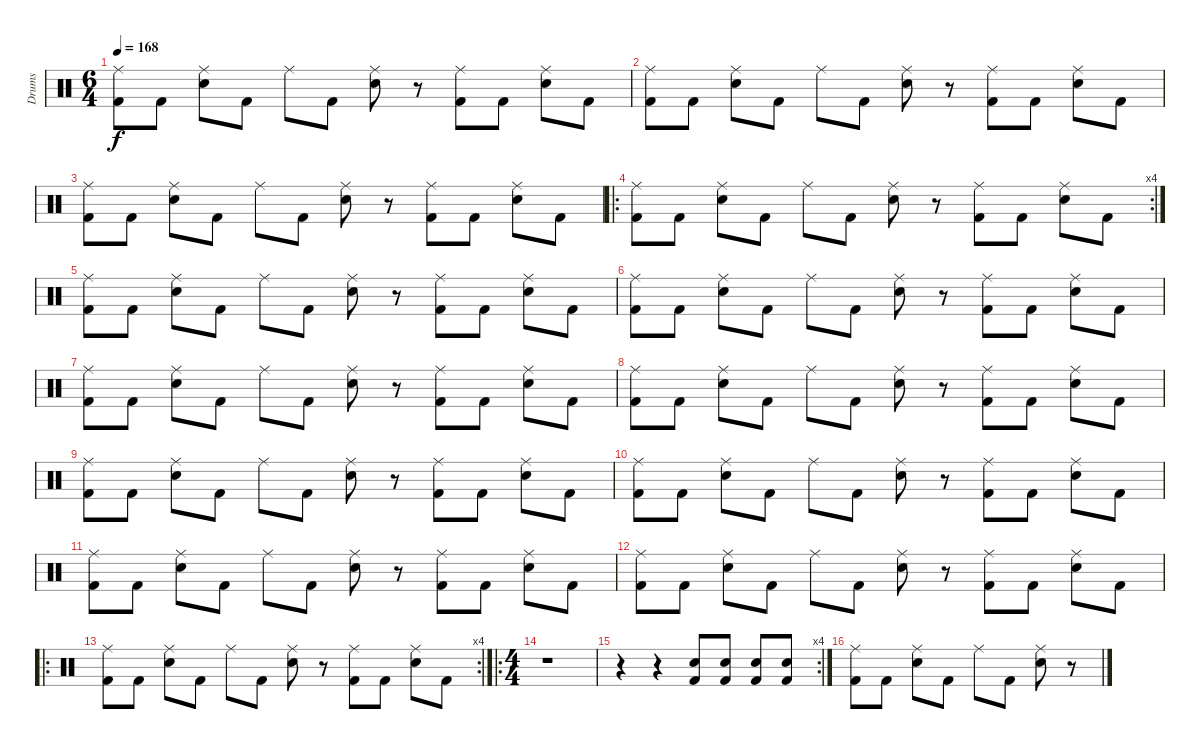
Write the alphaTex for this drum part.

\track ("Drums" "Drums") {instrument percussion}
\staff {score}
\articulation defaults
\ts (6 4)
\tempo 168
\clef neutral
\ks c
("Ride (middle)" "Kick (hit) 2").8{dy f} "Kick (hit) 2".8 ("Ride (middle)" "Snare (hit) 2").8 "Kick (hit) 2".8 "Ride (middle)".8 "Kick (hit) 2".8 ("Ride (middle)" "Snare (hit) 2").8 r.8 ("Ride (middle)" "Kick (hit) 2").8 "Kick (hit) 2".8 ("Ride (middle)" "Snare (hit) 2").8 "Kick (hit) 2".8 |
("Ride (middle)" "Kick (hit) 2").8 "Kick (hit) 2".8 ("Ride (middle)" "Snare (hit) 2").8 "Kick (hit) 2".8 "Ride (middle)".8 "Kick (hit) 2".8 ("Ride (middle)" "Snare (hit) 2").8 r.8 ("Ride (middle)" "Kick (hit) 2").8 "Kick (hit) 2".8 ("Ride (middle)" "Snare (hit) 2").8 "Kick (hit) 2".8 |
("Ride (middle)" "Kick (hit) 2").8 "Kick (hit) 2".8 ("Ride (middle)" "Snare (hit) 2").8 "Kick (hit) 2".8 "Ride (middle)".8 "Kick (hit) 2".8 ("Ride (middle)" "Snare (hit) 2").8 r.8 ("Ride (middle)" "Kick (hit) 2").8 "Kick (hit) 2".8 ("Ride (middle)" "Snare (hit) 2").8 "Kick (hit) 2".8 |
\ro
\rc 4
("Ride (middle)" "Kick (hit) 2").8 "Kick (hit) 2".8 ("Ride (middle)" "Snare (hit) 2").8 "Kick (hit) 2".8 "Ride (middle)".8 "Kick (hit) 2".8 ("Ride (middle)" "Snare (hit) 2").8 r.8 ("Ride (middle)" "Kick (hit) 2").8 "Kick (hit) 2".8 ("Ride (middle)" "Snare (hit) 2").8 "Kick (hit) 2".8 |
("Ride (middle)" "Kick (hit) 2").8 "Kick (hit) 2".8 ("Ride (middle)" "Snare (hit) 2").8 "Kick (hit) 2".8 "Ride (middle)".8 "Kick (hit) 2".8 ("Ride (middle)" "Snare (hit) 2").8 r.8 ("Ride (middle)" "Kick (hit) 2").8 "Kick (hit) 2".8 ("Ride (middle)" "Snare (hit) 2").8 "Kick (hit) 2".8 |
("Ride (middle)" "Kick (hit) 2").8 "Kick (hit) 2".8 ("Ride (middle)" "Snare (hit) 2").8 "Kick (hit) 2".8 "Ride (middle)".8 "Kick (hit) 2".8 ("Ride (middle)" "Snare (hit) 2").8 r.8 ("Ride (middle)" "Kick (hit) 2").8 "Kick (hit) 2".8 ("Ride (middle)" "Snare (hit) 2").8 "Kick (hit) 2".8 |
("Ride (middle)" "Kick (hit) 2").8 "Kick (hit) 2".8 ("Ride (middle)" "Snare (hit) 2").8 "Kick (hit) 2".8 "Ride (middle)".8 "Kick (hit) 2".8 ("Ride (middle)" "Snare (hit) 2").8 r.8 ("Ride (middle)" "Kick (hit) 2").8 "Kick (hit) 2".8 ("Ride (middle)" "Snare (hit) 2").8 "Kick (hit) 2".8 |
("Ride (middle)" "Kick (hit) 2").8 "Kick (hit) 2".8 ("Ride (middle)" "Snare (hit) 2").8 "Kick (hit) 2".8 "Ride (middle)".8 "Kick (hit) 2".8 ("Ride (middle)" "Snare (hit) 2").8 r.8 ("Ride (middle)" "Kick (hit) 2").8 "Kick (hit) 2".8 ("Ride (middle)" "Snare (hit) 2").8 "Kick (hit) 2".8 |
("Ride (middle)" "Kick (hit) 2").8 "Kick (hit) 2".8 ("Ride (middle)" "Snare (hit) 2").8 "Kick (hit) 2".8 "Ride (middle)".8 "Kick (hit) 2".8 ("Ride (middle)" "Snare (hit) 2").8 r.8 ("Ride (middle)" "Kick (hit) 2").8 "Kick (hit) 2".8 ("Ride (middle)" "Snare (hit) 2").8 "Kick (hit) 2".8 |
("Ride (middle)" "Kick (hit) 2").8 "Kick (hit) 2".8 ("Ride (middle)" "Snare (hit) 2").8 "Kick (hit) 2".8 "Ride (middle)".8 "Kick (hit) 2".8 ("Ride (middle)" "Snare (hit) 2").8 r.8 ("Ride (middle)" "Kick (hit) 2").8 "Kick (hit) 2".8 ("Ride (middle)" "Snare (hit) 2").8 "Kick (hit) 2".8 |
("Ride (middle)" "Kick (hit) 2").8 "Kick (hit) 2".8 ("Ride (middle)" "Snare (hit) 2").8 "Kick (hit) 2".8 "Ride (middle)".8 "Kick (hit) 2".8 ("Ride (middle)" "Snare (hit) 2").8 r.8 ("Ride (middle)" "Kick (hit) 2").8 "Kick (hit) 2".8 ("Ride (middle)" "Snare (hit) 2").8 "Kick (hit) 2".8 |
("Ride (middle)" "Kick (hit) 2").8 "Kick (hit) 2".8 ("Ride (middle)" "Snare (hit) 2").8 "Kick (hit) 2".8 "Ride (middle)".8 "Kick (hit) 2".8 ("Ride (middle)" "Snare (hit) 2").8 r.8 ("Ride (middle)" "Kick (hit) 2").8 "Kick (hit) 2".8 ("Ride (middle)" "Snare (hit) 2").8 "Kick (hit) 2".8 |
\ro
\rc 4
("Ride (middle)" "Kick (hit) 2").8 "Kick (hit) 2".8 ("Ride (middle)" "Snare (hit) 2").8 "Kick (hit) 2".8 "Ride (middle)".8 "Kick (hit) 2".8 ("Ride (middle)" "Snare (hit) 2").8 r.8 ("Ride (middle)" "Kick (hit) 2").8 "Kick (hit) 2".8 ("Ride (middle)" "Snare (hit) 2").8 "Kick (hit) 2".8 |
\ro
\ts (4 4)
r.1 |
\rc 4
r.4 r.4 ("Snare (hit) 2" "Kick (hit) 2").8 ("Snare (hit) 2" "Kick (hit) 2").8 ("Snare (hit) 2" "Kick (hit) 2").8 ("Snare (hit) 2" "Kick (hit) 2").8 |
("Ride (middle)" "Kick (hit) 2").8 "Kick (hit) 2".8 ("Ride (middle)" "Snare (hit) 2").8 "Kick (hit) 2".8 "Ride (middle)".8 "Kick (hit) 2".8 ("Ride (middle)" "Snare (hit) 2").8 r.8
